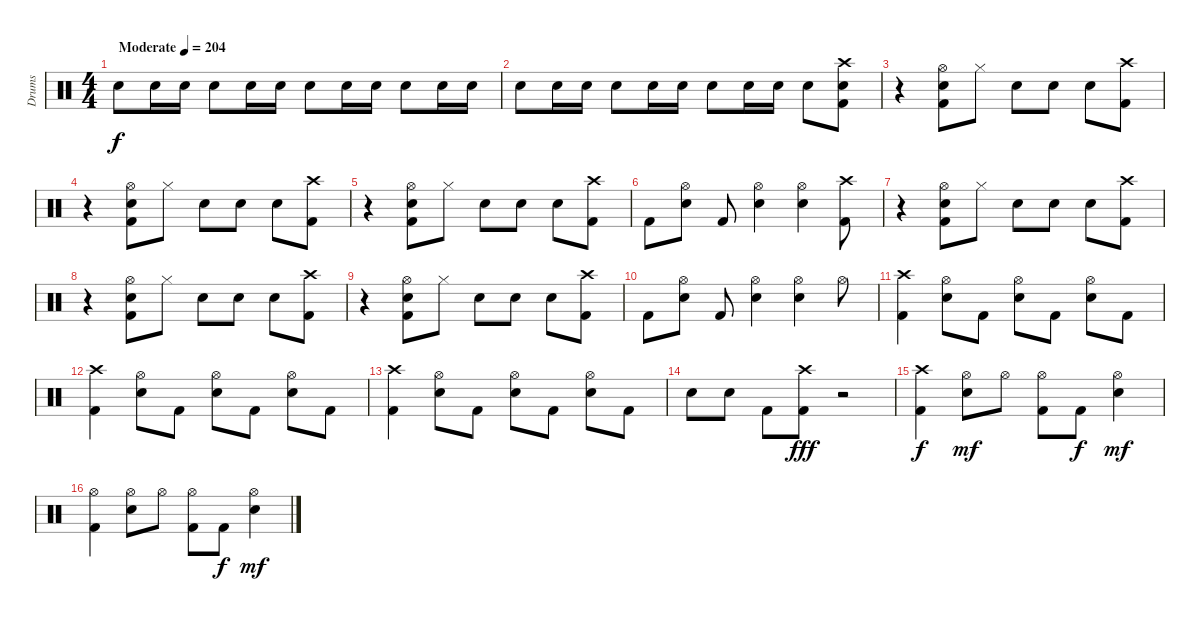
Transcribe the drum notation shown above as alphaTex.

\track ("Drums" "Drums") {instrument percussion}
\staff {score}
\articulation defaults
\ts (4 4)
\tempo (204 "Moderate")
\clef neutral
\ks c "Electric Snare (hit)".8{dy f} "Electric Snare (hit)".16 "Electric Snare (hit)".16 "Electric Snare (hit)".8 "Electric Snare (hit)".16 "Electric Snare (hit)".16 "Electric Snare (hit)".8 "Electric Snare (hit)".16 "Electric Snare (hit)".16 "Electric Snare (hit)".8 "Electric Snare (hit)".16 "Electric Snare (hit)".16
|
"Electric Snare (hit)".8 "Electric Snare (hit)".16 "Electric Snare (hit)".16 "Electric Snare (hit)".8 "Electric Snare (hit)".16 "Electric Snare (hit)".16 "Electric Snare (hit)".8 "Electric Snare (hit)".16 "Electric Snare (hit)".16 "Electric Snare (hit)".8 ("Kick (hit) 2" "Electric Snare (hit)" "Crash high (hit)").8 |
r.4 ("Electric Snare (hit)" "Kick (hit) 2" "Hi-Hat (open)").8 "Hi-Hat (closed)".8 "Snare (hit) 2".8 "Snare (hit) 2".8 "Snare (hit) 2".8 ("Kick (hit) 2" "Crash high (hit)").8 |
r.4 ("Electric Snare (hit)" "Kick (hit) 2" "Hi-Hat (open)").8 "Hi-Hat (closed)".8 "Snare (hit) 2".8 "Snare (hit) 2".8 "Snare (hit) 2".8 ("Kick (hit) 2" "Crash high (hit)").8 |
r.4 ("Electric Snare (hit)" "Kick (hit) 2" "Hi-Hat (open)").8 "Hi-Hat (closed)".8 "Snare (hit) 2".8 "Snare (hit) 2".8 "Snare (hit) 2".8 ("Kick (hit) 2" "Crash high (hit)").8 |
"Kick (hit) 2".8 ("Electric Snare (hit)" "Hi-Hat (open)").8 "Kick (hit) 2".8 ("Electric Snare (hit)" "Hi-Hat (open)").4 ("Electric Snare (hit)" "Hi-Hat (open)").4 ("Crash high (hit)" "Kick (hit) 2").8 |
r.4 ("Electric Snare (hit)" "Kick (hit) 2" "Hi-Hat (open)").8 "Hi-Hat (closed)".8 "Snare (hit) 2".8 "Snare (hit) 2".8 "Snare (hit) 2".8 ("Kick (hit) 2" "Crash high (hit)").8 |
r.4 ("Electric Snare (hit)" "Kick (hit) 2" "Hi-Hat (open)").8 "Hi-Hat (closed)".8 "Snare (hit) 2".8 "Snare (hit) 2".8 "Snare (hit) 2".8 ("Kick (hit) 2" "Crash high (hit)").8 |
r.4 ("Electric Snare (hit)" "Kick (hit) 2" "Hi-Hat (open)").8 "Hi-Hat (closed)".8 "Snare (hit) 2".8 "Snare (hit) 2".8 "Snare (hit) 2".8 ("Kick (hit) 2" "Crash high (hit)").8 |
"Kick (hit) 2".8 ("Electric Snare (hit)" "Hi-Hat (open)").8 "Kick (hit) 2".8 ("Electric Snare (hit)" "Hi-Hat (open)").4 ("Electric Snare (hit)" "Hi-Hat (open)").4 "Hi-Hat (open)".8 |
("Crash high (hit)" "Kick (hit) 2").4 ("Hi-Hat (open)" "Electric Snare (hit)").8 "Kick (hit) 2".8 ("Hi-Hat (open)" "Electric Snare (hit)").8 "Kick (hit) 2".8 ("Hi-Hat (open)" "Electric Snare (hit)").8 "Kick (hit) 2".8 |
("Crash high (hit)" "Kick (hit) 2").4 ("Hi-Hat (open)" "Electric Snare (hit)").8 "Kick (hit) 2".8 ("Hi-Hat (open)" "Electric Snare (hit)").8 "Kick (hit) 2".8 ("Hi-Hat (open)" "Electric Snare (hit)").8 "Kick (hit) 2".8 |
("Crash high (hit)" "Kick (hit) 2").4 ("Hi-Hat (open)" "Electric Snare (hit)").8 "Kick (hit) 2".8 ("Hi-Hat (open)" "Electric Snare (hit)").8 "Kick (hit) 2".8 ("Hi-Hat (open)" "Electric Snare (hit)").8 "Kick (hit) 2".8 |
"Electric Snare (hit)".8 "Electric Snare (hit)".8 "Kick (hit) 2".8 ("Crash high (hit)" "Kick (hit) 2").8{dy fff} r.2 |
("Kick (hit) 2" "Crash high (hit)").4{dy f} ("Snare (hit) 2" "Hi-Hat (open)").8{dy mf} "Hi-Hat (open)".8 ("Kick (hit) 2" "Hi-Hat (open)").8 "Kick (hit) 2".8{dy f} ("Snare (hit) 2" "Hi-Hat (open)").4{dy mf} |
("Kick (hit) 2" "Hi-Hat (open)").4 ("Electric Snare (hit)" "Hi-Hat (open)").8 "Hi-Hat (open)".8 ("Kick (hit) 2" "Hi-Hat (open)").8 "Kick (hit) 2".8{dy f} ("Electric Snare (hit)" "Hi-Hat (open)").4{dy mf}
